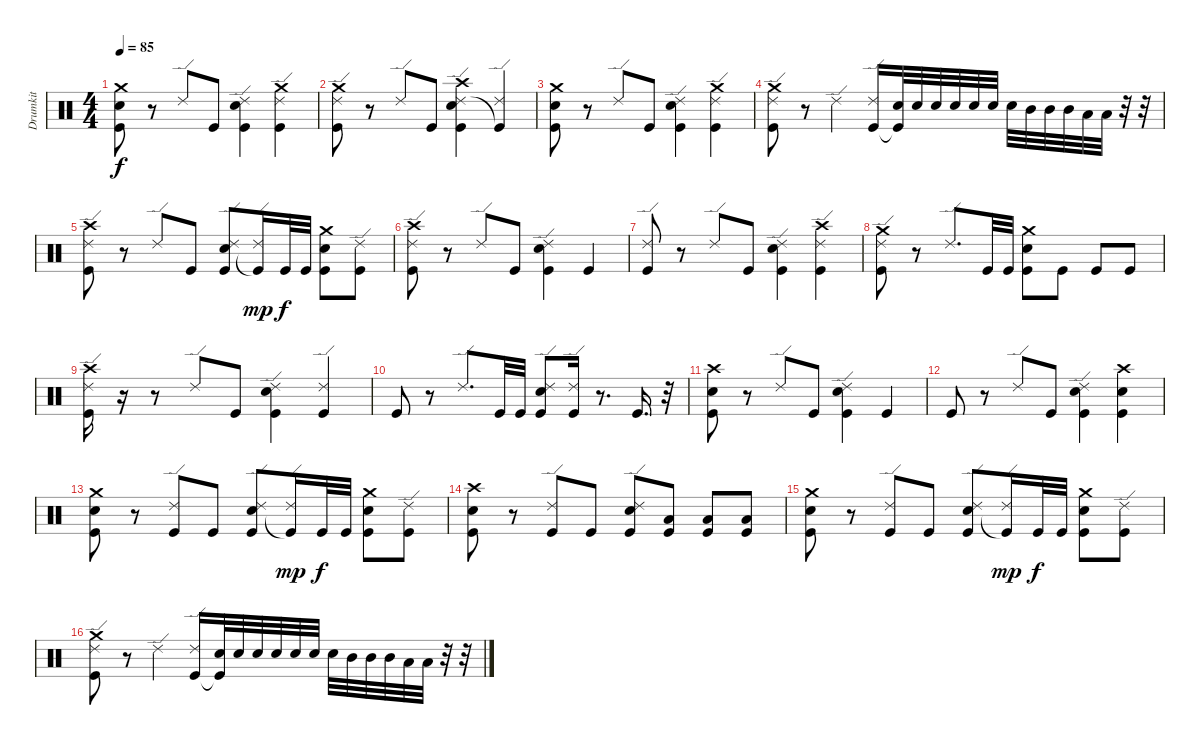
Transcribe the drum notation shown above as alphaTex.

\track ("Drumkit" "Drumkit") {instrument percussion}
\staff {score}
\articulation defaults
\ts (4 4)
\tempo 85
\clef neutral
\ks c
("Crash medium (hit)" "Snare (hit) 2" "Kick (hit)").8{dy f} r.8 "Ride (edge) 2".8 "Kick (hit)".8 ("Ride (edge) 2" "Snare (hit) 2" "Kick (hit)").4 ("Crash medium (hit)" "Ride (edge) 2" "Kick (hit)").4 |
("Crash medium (hit)" "Ride (edge) 2" "Kick (hit)").8 r.8 "Ride (edge) 2".8 "Kick (hit)".8 ("Crash high (hit)" "Ride (edge) 2" "Snare (hit) 2" "Kick (hit)").4 ("Ride (edge) 2" "Kick (hit)"{t}).4 |
("Crash medium (hit)" "Snare (hit) 2" "Kick (hit)").8 r.8 "Ride (edge) 2".8 "Kick (hit)".8 ("Ride (edge) 2" "Snare (hit) 2" "Kick (hit)").4 ("Crash medium (hit)" "Ride (edge) 2" "Kick (hit)").4 |
("Crash medium (hit)" "Ride (edge) 2" "Kick (hit)").8 r.8 "Ride (edge) 2".4 ("Ride (edge) 2" "Kick (hit)").16 ("Snare (hit) 2" "Kick (hit)"{t}).32 "Snare (hit) 2".32 "Snare (hit) 2".32 "Snare (hit) 2".32 "Snare (hit) 2".32 "Snare (hit) 2".32 "Snare (hit) 2".32 "Mid Tom (hit)".32 "Mid Tom (hit)".32 "Mid Tom (hit)".32 "Low Floor Tom (hit)".32 "Low Floor Tom (hit)".32 r.32 r.32 |
("Crash high (hit)" "Ride (edge) 2" "Kick (hit)").8 r.8 "Ride (edge) 2".8 "Kick (hit)".8 ("Ride (edge) 2" "Snare (hit) 2" "Kick (hit)").8 ("Ride (edge) 2" "Kick (hit)"{t}).16{dy mp} "Kick (hit)".32{dy f} "Kick (hit)".32 ("Crash medium (hit)" "Snare (hit) 2" "Kick (hit)").8 ("Ride (edge) 2" "Kick (hit)").8 |
("Crash high (hit)" "Ride (edge) 2" "Kick (hit)").8 r.8 "Ride (edge) 2".8 "Kick (hit)".8 ("Ride (edge) 2" "Snare (hit) 2" "Kick (hit)").4 "Kick (hit)".4 |
("Ride (edge) 2" "Kick (hit)").8 r.8 "Ride (edge) 2".8 "Kick (hit)".8 ("Ride (edge) 2" "Snare (hit) 2" "Kick (hit)").4 ("Crash high (hit)" "Ride (edge) 2" "Kick (hit)").4 |
("Crash medium (hit)" "Ride (edge) 2" "Kick (hit)").8 r.8 "Ride (edge) 2".8{d} "Kick (hit)".32 "Kick (hit)".32 ("Crash medium (hit)" "Snare (hit) 2" "Kick (hit)").8 "Kick (hit)".8 "Kick (hit)".8 "Kick (hit)".8 |
("Crash high (hit)" "Ride (edge) 2" "Kick (hit)").16 r.16 r.8 "Ride (edge) 2".8 "Kick (hit)".8 ("Ride (edge) 2" "Snare (hit) 2" "Kick (hit)").4 ("Ride (edge) 2" "Kick (hit)").4 |
"Kick (hit)".8 r.8 "Ride (edge) 2".8{d} "Kick (hit)".32 "Kick (hit)".32 ("Ride (edge) 2" "Snare (hit) 2" "Kick (hit)").8 ("Ride (edge) 2" "Kick (hit)").16 r.8{d} "Kick (hit)".16{d} r.32 |
("Crash high (hit)" "Snare (hit) 2" "Kick (hit)").8 r.8 "Ride (edge) 2".8 "Kick (hit)".8 ("Ride (edge) 2" "Snare (hit) 2" "Kick (hit)").4 "Kick (hit)".4 |
"Kick (hit)".8 r.8 "Ride (edge) 2".8 "Kick (hit)".8 ("Ride (edge) 2" "Snare (hit) 2" "Kick (hit)").4 ("Crash high (hit)" "Snare (hit) 2" "Kick (hit)").4 |
("Crash medium (hit)" "Snare (hit) 2" "Kick (hit)").8 r.8 ("Ride (edge) 2" "Kick (hit)").8 "Kick (hit)".8 ("Ride (edge) 2" "Snare (hit) 2" "Kick (hit)").8 ("Ride (edge) 2" "Kick (hit)"{t}).16{dy mp} "Kick (hit)".32{dy f} "Kick (hit)".32 ("Crash medium (hit)" "Snare (hit) 2" "Kick (hit)").8 ("Ride (edge) 2" "Kick (hit)").8 |
("Crash high (hit)" "Snare (hit) 2" "Kick (hit)").8 r.8 ("Ride (edge) 2" "Kick (hit)").8 "Kick (hit)".8 ("Ride (edge) 2" "Snare (hit) 2" "Kick (hit)").8 ("Low Floor Tom (hit)" "Kick (hit)").8 ("Low Floor Tom (hit)" "Kick (hit)").8 ("Low Floor Tom (hit)" "Kick (hit)").8 |
("Crash medium (hit)" "Snare (hit) 2" "Kick (hit)").8 r.8 ("Ride (edge) 2" "Kick (hit)").8 "Kick (hit)".8 ("Ride (edge) 2" "Snare (hit) 2" "Kick (hit)").8 ("Ride (edge) 2" "Kick (hit)"{t}).16{dy mp} "Kick (hit)".32{dy f} "Kick (hit)".32 ("Crash medium (hit)" "Snare (hit) 2" "Kick (hit)").8 ("Ride (edge) 2" "Kick (hit)").8 |
("Crash medium (hit)" "Ride (edge) 2" "Kick (hit)").8 r.8 "Ride (edge) 2".4 ("Ride (edge) 2" "Kick (hit)").16 ("Snare (hit) 2" "Kick (hit)"{t}).32 "Snare (hit) 2".32 "Snare (hit) 2".32 "Snare (hit) 2".32 "Snare (hit) 2".32 "Snare (hit) 2".32 "Snare (hit) 2".32 "Mid Tom (hit)".32 "Mid Tom (hit)".32 "Mid Tom (hit)".32 "Low Floor Tom (hit)".32 "Low Floor Tom (hit)".32 r.32 r.32
